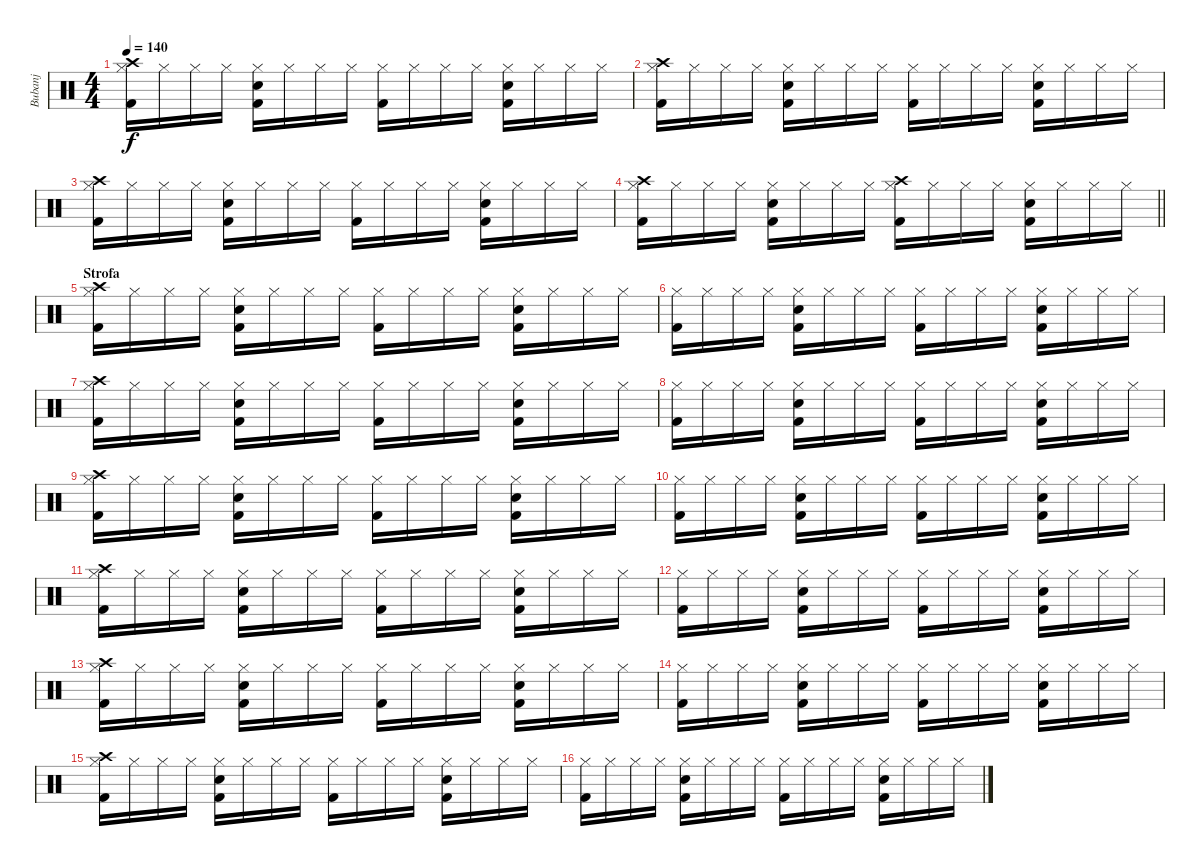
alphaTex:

\track ("Bubanj" "Bubanj") {instrument percussion}
\staff {score}
\articulation defaults
\ts (4 4)
\tempo 140
\clef neutral
\ks c
("Kick (hit) 2" "Hi-Hat (closed)" "Crash high (hit)").16{dy f} "Hi-Hat (closed)".16 "Hi-Hat (closed)".16 "Hi-Hat (closed)".16 ("Kick (hit) 2" "Snare (hit) 2" "Hi-Hat (closed)").16 "Hi-Hat (closed)".16 "Hi-Hat (closed)".16 "Hi-Hat (closed)".16 ("Kick (hit) 2" "Hi-Hat (closed)").16 "Hi-Hat (closed)".16 "Hi-Hat (closed)".16 "Hi-Hat (closed)".16 ("Kick (hit) 2" "Snare (hit) 2" "Hi-Hat (closed)").16 "Hi-Hat (closed)".16 "Hi-Hat (closed)".16 "Hi-Hat (closed)".16 |
("Kick (hit) 2" "Hi-Hat (closed)" "Crash high (hit)").16 "Hi-Hat (closed)".16 "Hi-Hat (closed)".16 "Hi-Hat (closed)".16 ("Kick (hit) 2" "Snare (hit) 2" "Hi-Hat (closed)").16 "Hi-Hat (closed)".16 "Hi-Hat (closed)".16 "Hi-Hat (closed)".16 ("Kick (hit) 2" "Hi-Hat (closed)").16 "Hi-Hat (closed)".16 "Hi-Hat (closed)".16 "Hi-Hat (closed)".16 ("Kick (hit) 2" "Snare (hit) 2" "Hi-Hat (closed)").16 "Hi-Hat (closed)".16 "Hi-Hat (closed)".16 "Hi-Hat (closed)".16 |
("Kick (hit) 2" "Hi-Hat (closed)" "Crash high (hit)").16 "Hi-Hat (closed)".16 "Hi-Hat (closed)".16 "Hi-Hat (closed)".16 ("Kick (hit) 2" "Snare (hit) 2" "Hi-Hat (closed)").16 "Hi-Hat (closed)".16 "Hi-Hat (closed)".16 "Hi-Hat (closed)".16 ("Kick (hit) 2" "Hi-Hat (closed)").16 "Hi-Hat (closed)".16 "Hi-Hat (closed)".16 "Hi-Hat (closed)".16 ("Kick (hit) 2" "Snare (hit) 2" "Hi-Hat (closed)").16 "Hi-Hat (closed)".16 "Hi-Hat (closed)".16 "Hi-Hat (closed)".16 |
\barLineRight lightlight
("Kick (hit) 2" "Hi-Hat (closed)" "Crash high (hit)").16 "Hi-Hat (closed)".16 "Hi-Hat (closed)".16 "Hi-Hat (closed)".16 ("Kick (hit) 2" "Snare (hit) 2" "Hi-Hat (closed)").16 "Hi-Hat (closed)".16 "Hi-Hat (closed)".16 "Hi-Hat (closed)".16 ("Kick (hit) 2" "Hi-Hat (closed)" "Crash high (hit)").16 "Hi-Hat (closed)".16 "Hi-Hat (closed)".16 "Hi-Hat (closed)".16 ("Kick (hit) 2" "Snare (hit) 2" "Hi-Hat (closed)").16 "Hi-Hat (closed)".16 "Hi-Hat (closed)".16 "Hi-Hat (closed)".16 |
\section ("" "Strofa")
("Kick (hit) 2" "Hi-Hat (closed)" "Crash high (hit)").16 "Hi-Hat (closed)".16 "Hi-Hat (closed)".16 "Hi-Hat (closed)".16 ("Kick (hit) 2" "Snare (hit) 2" "Hi-Hat (closed)").16 "Hi-Hat (closed)".16 "Hi-Hat (closed)".16 "Hi-Hat (closed)".16 ("Kick (hit) 2" "Hi-Hat (closed)").16 "Hi-Hat (closed)".16 "Hi-Hat (closed)".16 "Hi-Hat (closed)".16 ("Kick (hit) 2" "Snare (hit) 2" "Hi-Hat (closed)").16 "Hi-Hat (closed)".16 "Hi-Hat (closed)".16 "Hi-Hat (closed)".16 |
("Kick (hit) 2" "Hi-Hat (closed)").16 "Hi-Hat (closed)".16 "Hi-Hat (closed)".16 "Hi-Hat (closed)".16 ("Kick (hit) 2" "Snare (hit) 2" "Hi-Hat (closed)").16 "Hi-Hat (closed)".16 "Hi-Hat (closed)".16 "Hi-Hat (closed)".16 ("Kick (hit) 2" "Hi-Hat (closed)").16 "Hi-Hat (closed)".16 "Hi-Hat (closed)".16 "Hi-Hat (closed)".16 ("Kick (hit) 2" "Snare (hit) 2" "Hi-Hat (closed)").16 "Hi-Hat (closed)".16 "Hi-Hat (closed)".16 "Hi-Hat (closed)".16 |
("Kick (hit) 2" "Hi-Hat (closed)" "Crash high (hit)").16 "Hi-Hat (closed)".16 "Hi-Hat (closed)".16 "Hi-Hat (closed)".16 ("Kick (hit) 2" "Snare (hit) 2" "Hi-Hat (closed)").16 "Hi-Hat (closed)".16 "Hi-Hat (closed)".16 "Hi-Hat (closed)".16 ("Kick (hit) 2" "Hi-Hat (closed)").16 "Hi-Hat (closed)".16 "Hi-Hat (closed)".16 "Hi-Hat (closed)".16 ("Kick (hit) 2" "Snare (hit) 2" "Hi-Hat (closed)").16 "Hi-Hat (closed)".16 "Hi-Hat (closed)".16 "Hi-Hat (closed)".16 |
("Kick (hit) 2" "Hi-Hat (closed)").16 "Hi-Hat (closed)".16 "Hi-Hat (closed)".16 "Hi-Hat (closed)".16 ("Kick (hit) 2" "Snare (hit) 2" "Hi-Hat (closed)").16 "Hi-Hat (closed)".16 "Hi-Hat (closed)".16 "Hi-Hat (closed)".16 ("Kick (hit) 2" "Hi-Hat (closed)").16 "Hi-Hat (closed)".16 "Hi-Hat (closed)".16 "Hi-Hat (closed)".16 ("Kick (hit) 2" "Snare (hit) 2" "Hi-Hat (closed)").16 "Hi-Hat (closed)".16 "Hi-Hat (closed)".16 "Hi-Hat (closed)".16 |
("Kick (hit) 2" "Hi-Hat (closed)" "Crash high (hit)").16 "Hi-Hat (closed)".16 "Hi-Hat (closed)".16 "Hi-Hat (closed)".16 ("Kick (hit) 2" "Snare (hit) 2" "Hi-Hat (closed)").16 "Hi-Hat (closed)".16 "Hi-Hat (closed)".16 "Hi-Hat (closed)".16 ("Kick (hit) 2" "Hi-Hat (closed)").16 "Hi-Hat (closed)".16 "Hi-Hat (closed)".16 "Hi-Hat (closed)".16 ("Kick (hit) 2" "Snare (hit) 2" "Hi-Hat (closed)").16 "Hi-Hat (closed)".16 "Hi-Hat (closed)".16 "Hi-Hat (closed)".16 |
("Kick (hit) 2" "Hi-Hat (closed)").16 "Hi-Hat (closed)".16 "Hi-Hat (closed)".16 "Hi-Hat (closed)".16 ("Kick (hit) 2" "Snare (hit) 2" "Hi-Hat (closed)").16 "Hi-Hat (closed)".16 "Hi-Hat (closed)".16 "Hi-Hat (closed)".16 ("Kick (hit) 2" "Hi-Hat (closed)").16 "Hi-Hat (closed)".16 "Hi-Hat (closed)".16 "Hi-Hat (closed)".16 ("Kick (hit) 2" "Snare (hit) 2" "Hi-Hat (closed)").16 "Hi-Hat (closed)".16 "Hi-Hat (closed)".16 "Hi-Hat (closed)".16 |
("Kick (hit) 2" "Hi-Hat (closed)" "Crash high (hit)").16 "Hi-Hat (closed)".16 "Hi-Hat (closed)".16 "Hi-Hat (closed)".16 ("Kick (hit) 2" "Snare (hit) 2" "Hi-Hat (closed)").16 "Hi-Hat (closed)".16 "Hi-Hat (closed)".16 "Hi-Hat (closed)".16 ("Kick (hit) 2" "Hi-Hat (closed)").16 "Hi-Hat (closed)".16 "Hi-Hat (closed)".16 "Hi-Hat (closed)".16 ("Kick (hit) 2" "Snare (hit) 2" "Hi-Hat (closed)").16 "Hi-Hat (closed)".16 "Hi-Hat (closed)".16 "Hi-Hat (closed)".16 |
("Kick (hit) 2" "Hi-Hat (closed)").16 "Hi-Hat (closed)".16 "Hi-Hat (closed)".16 "Hi-Hat (closed)".16 ("Kick (hit) 2" "Snare (hit) 2" "Hi-Hat (closed)").16 "Hi-Hat (closed)".16 "Hi-Hat (closed)".16 "Hi-Hat (closed)".16 ("Kick (hit) 2" "Hi-Hat (closed)").16 "Hi-Hat (closed)".16 "Hi-Hat (closed)".16 "Hi-Hat (closed)".16 ("Kick (hit) 2" "Snare (hit) 2" "Hi-Hat (closed)").16 "Hi-Hat (closed)".16 "Hi-Hat (closed)".16 "Hi-Hat (closed)".16 |
("Kick (hit) 2" "Hi-Hat (closed)" "Crash high (hit)").16 "Hi-Hat (closed)".16 "Hi-Hat (closed)".16 "Hi-Hat (closed)".16 ("Kick (hit) 2" "Snare (hit) 2" "Hi-Hat (closed)").16 "Hi-Hat (closed)".16 "Hi-Hat (closed)".16 "Hi-Hat (closed)".16 ("Kick (hit) 2" "Hi-Hat (closed)").16 "Hi-Hat (closed)".16 "Hi-Hat (closed)".16 "Hi-Hat (closed)".16 ("Kick (hit) 2" "Snare (hit) 2" "Hi-Hat (closed)").16 "Hi-Hat (closed)".16 "Hi-Hat (closed)".16 "Hi-Hat (closed)".16 |
("Kick (hit) 2" "Hi-Hat (closed)").16 "Hi-Hat (closed)".16 "Hi-Hat (closed)".16 "Hi-Hat (closed)".16 ("Kick (hit) 2" "Snare (hit) 2" "Hi-Hat (closed)").16 "Hi-Hat (closed)".16 "Hi-Hat (closed)".16 "Hi-Hat (closed)".16 ("Kick (hit) 2" "Hi-Hat (closed)").16 "Hi-Hat (closed)".16 "Hi-Hat (closed)".16 "Hi-Hat (closed)".16 ("Kick (hit) 2" "Snare (hit) 2" "Hi-Hat (closed)").16 "Hi-Hat (closed)".16 "Hi-Hat (closed)".16 "Hi-Hat (closed)".16 |
("Kick (hit) 2" "Hi-Hat (closed)" "Crash high (hit)").16 "Hi-Hat (closed)".16 "Hi-Hat (closed)".16 "Hi-Hat (closed)".16 ("Kick (hit) 2" "Snare (hit) 2" "Hi-Hat (closed)").16 "Hi-Hat (closed)".16 "Hi-Hat (closed)".16 "Hi-Hat (closed)".16 ("Kick (hit) 2" "Hi-Hat (closed)").16 "Hi-Hat (closed)".16 "Hi-Hat (closed)".16 "Hi-Hat (closed)".16 ("Kick (hit) 2" "Snare (hit) 2" "Hi-Hat (closed)").16 "Hi-Hat (closed)".16 "Hi-Hat (closed)".16 "Hi-Hat (closed)".16 |
("Kick (hit) 2" "Hi-Hat (closed)").16 "Hi-Hat (closed)".16 "Hi-Hat (closed)".16 "Hi-Hat (closed)".16 ("Kick (hit) 2" "Snare (hit) 2" "Hi-Hat (closed)").16 "Hi-Hat (closed)".16 "Hi-Hat (closed)".16 "Hi-Hat (closed)".16 ("Kick (hit) 2" "Hi-Hat (closed)").16 "Hi-Hat (closed)".16 "Hi-Hat (closed)".16 "Hi-Hat (closed)".16 ("Kick (hit) 2" "Snare (hit) 2" "Hi-Hat (closed)").16 "Hi-Hat (closed)".16 "Hi-Hat (closed)".16 "Hi-Hat (closed)".16
